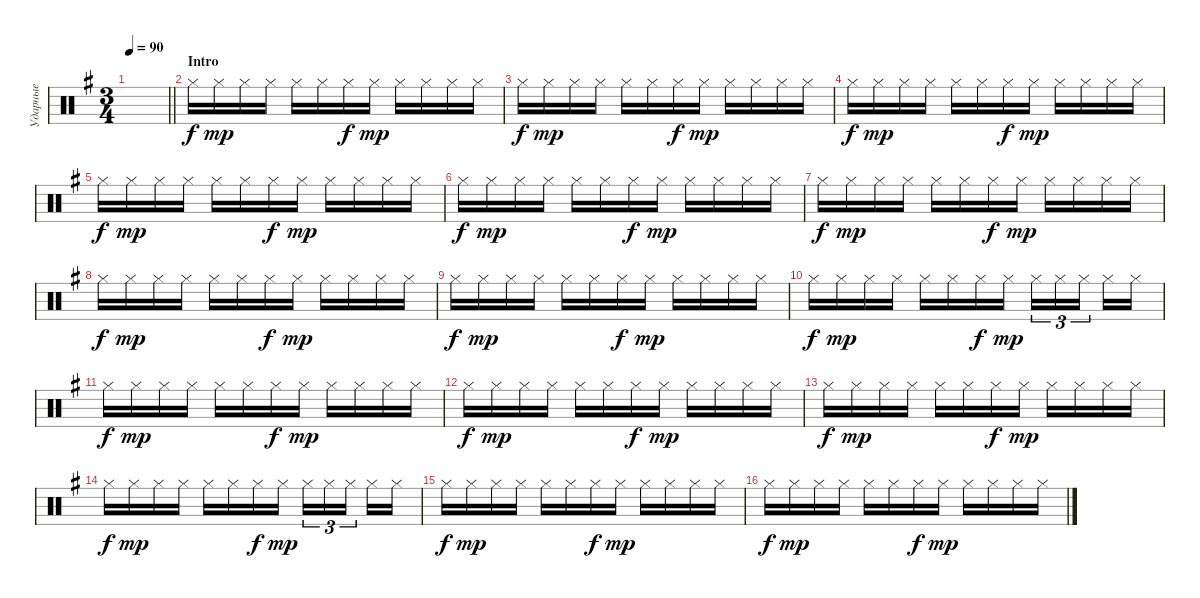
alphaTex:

\track ("Ударные" "Ударные") {instrument percussion}
\staff {score}
\articulation defaults
\ts (3 4)
\tempo 90
\clef neutral
\barLineRight lightlight
\ks eminor
|
\section ("" "Intro")
"Hi-Hat (closed)".16 "Hi-Hat (closed)".16{dy mp} "Hi-Hat (closed)".16 "Hi-Hat (closed)".16 "Hi-Hat (closed)".16 "Hi-Hat (closed)".16 "Hi-Hat (closed)".16{dy f} "Hi-Hat (closed)".16{dy mp} "Hi-Hat (closed)".16 "Hi-Hat (closed)".16 "Hi-Hat (closed)".16 "Hi-Hat (closed)".16 |
"Hi-Hat (closed)".16{dy f} "Hi-Hat (closed)".16{dy mp} "Hi-Hat (closed)".16 "Hi-Hat (closed)".16 "Hi-Hat (closed)".16 "Hi-Hat (closed)".16 "Hi-Hat (closed)".16{dy f} "Hi-Hat (closed)".16{dy mp} "Hi-Hat (closed)".16 "Hi-Hat (closed)".16 "Hi-Hat (closed)".16 "Hi-Hat (closed)".16 |
"Hi-Hat (closed)".16{dy f} "Hi-Hat (closed)".16{dy mp} "Hi-Hat (closed)".16 "Hi-Hat (closed)".16 "Hi-Hat (closed)".16 "Hi-Hat (closed)".16 "Hi-Hat (closed)".16{dy f} "Hi-Hat (closed)".16{dy mp} "Hi-Hat (closed)".16 "Hi-Hat (closed)".16 "Hi-Hat (closed)".16 "Hi-Hat (closed)".16 |
"Hi-Hat (closed)".16{dy f} "Hi-Hat (closed)".16{dy mp} "Hi-Hat (closed)".16 "Hi-Hat (closed)".16 "Hi-Hat (closed)".16 "Hi-Hat (closed)".16 "Hi-Hat (closed)".16{dy f} "Hi-Hat (closed)".16{dy mp} "Hi-Hat (closed)".16 "Hi-Hat (closed)".16 "Hi-Hat (closed)".16 "Hi-Hat (closed)".16 |
"Hi-Hat (closed)".16{dy f} "Hi-Hat (closed)".16{dy mp} "Hi-Hat (closed)".16 "Hi-Hat (closed)".16 "Hi-Hat (closed)".16 "Hi-Hat (closed)".16 "Hi-Hat (closed)".16{dy f} "Hi-Hat (closed)".16{dy mp} "Hi-Hat (closed)".16 "Hi-Hat (closed)".16 "Hi-Hat (closed)".16 "Hi-Hat (closed)".16 |
"Hi-Hat (closed)".16{dy f} "Hi-Hat (closed)".16{dy mp} "Hi-Hat (closed)".16 "Hi-Hat (closed)".16 "Hi-Hat (closed)".16 "Hi-Hat (closed)".16 "Hi-Hat (closed)".16{dy f} "Hi-Hat (closed)".16{dy mp} "Hi-Hat (closed)".16 "Hi-Hat (closed)".16 "Hi-Hat (closed)".16 "Hi-Hat (closed)".16 |
"Hi-Hat (closed)".16{dy f} "Hi-Hat (closed)".16{dy mp} "Hi-Hat (closed)".16 "Hi-Hat (closed)".16 "Hi-Hat (closed)".16 "Hi-Hat (closed)".16 "Hi-Hat (closed)".16{dy f} "Hi-Hat (closed)".16{dy mp} "Hi-Hat (closed)".16 "Hi-Hat (closed)".16 "Hi-Hat (closed)".16 "Hi-Hat (closed)".16 |
"Hi-Hat (closed)".16{dy f} "Hi-Hat (closed)".16{dy mp} "Hi-Hat (closed)".16 "Hi-Hat (closed)".16 "Hi-Hat (closed)".16 "Hi-Hat (closed)".16 "Hi-Hat (closed)".16{dy f} "Hi-Hat (closed)".16{dy mp} "Hi-Hat (closed)".16 "Hi-Hat (closed)".16 "Hi-Hat (closed)".16 "Hi-Hat (closed)".16 |
"Hi-Hat (closed)".16{dy f} "Hi-Hat (closed)".16{dy mp} "Hi-Hat (closed)".16 "Hi-Hat (closed)".16 "Hi-Hat (closed)".16 "Hi-Hat (closed)".16 "Hi-Hat (closed)".16{dy f} "Hi-Hat (closed)".16{dy mp} "Hi-Hat (closed)".16{tu (3 2)} "Hi-Hat (closed)".16{tu (3 2)} "Hi-Hat (closed)".16{tu (3 2) beam splitsecondary} "Hi-Hat (closed)".16 "Hi-Hat (closed)".16 |
"Hi-Hat (closed)".16{dy f} "Hi-Hat (closed)".16{dy mp} "Hi-Hat (closed)".16 "Hi-Hat (closed)".16 "Hi-Hat (closed)".16 "Hi-Hat (closed)".16 "Hi-Hat (closed)".16{dy f} "Hi-Hat (closed)".16{dy mp} "Hi-Hat (closed)".16 "Hi-Hat (closed)".16 "Hi-Hat (closed)".16 "Hi-Hat (closed)".16 |
"Hi-Hat (closed)".16{dy f} "Hi-Hat (closed)".16{dy mp} "Hi-Hat (closed)".16 "Hi-Hat (closed)".16 "Hi-Hat (closed)".16 "Hi-Hat (closed)".16 "Hi-Hat (closed)".16{dy f} "Hi-Hat (closed)".16{dy mp} "Hi-Hat (closed)".16 "Hi-Hat (closed)".16 "Hi-Hat (closed)".16 "Hi-Hat (closed)".16 |
"Hi-Hat (closed)".16{dy f} "Hi-Hat (closed)".16{dy mp} "Hi-Hat (closed)".16 "Hi-Hat (closed)".16 "Hi-Hat (closed)".16 "Hi-Hat (closed)".16 "Hi-Hat (closed)".16{dy f} "Hi-Hat (closed)".16{dy mp} "Hi-Hat (closed)".16 "Hi-Hat (closed)".16 "Hi-Hat (closed)".16 "Hi-Hat (closed)".16 |
"Hi-Hat (closed)".16{dy f} "Hi-Hat (closed)".16{dy mp} "Hi-Hat (closed)".16 "Hi-Hat (closed)".16 "Hi-Hat (closed)".16 "Hi-Hat (closed)".16 "Hi-Hat (closed)".16{dy f} "Hi-Hat (closed)".16{dy mp} "Hi-Hat (closed)".16{tu (3 2)} "Hi-Hat (closed)".16{tu (3 2)} "Hi-Hat (closed)".16{tu (3 2) beam splitsecondary} "Hi-Hat (closed)".16 "Hi-Hat (closed)".16 |
"Hi-Hat (closed)".16{dy f} "Hi-Hat (closed)".16{dy mp} "Hi-Hat (closed)".16 "Hi-Hat (closed)".16 "Hi-Hat (closed)".16 "Hi-Hat (closed)".16 "Hi-Hat (closed)".16{dy f} "Hi-Hat (closed)".16{dy mp} "Hi-Hat (closed)".16 "Hi-Hat (closed)".16 "Hi-Hat (closed)".16 "Hi-Hat (closed)".16 |
"Hi-Hat (closed)".16{dy f} "Hi-Hat (closed)".16{dy mp} "Hi-Hat (closed)".16 "Hi-Hat (closed)".16 "Hi-Hat (closed)".16 "Hi-Hat (closed)".16 "Hi-Hat (closed)".16{dy f} "Hi-Hat (closed)".16{dy mp} "Hi-Hat (closed)".16 "Hi-Hat (closed)".16 "Hi-Hat (closed)".16 "Hi-Hat (closed)".16
